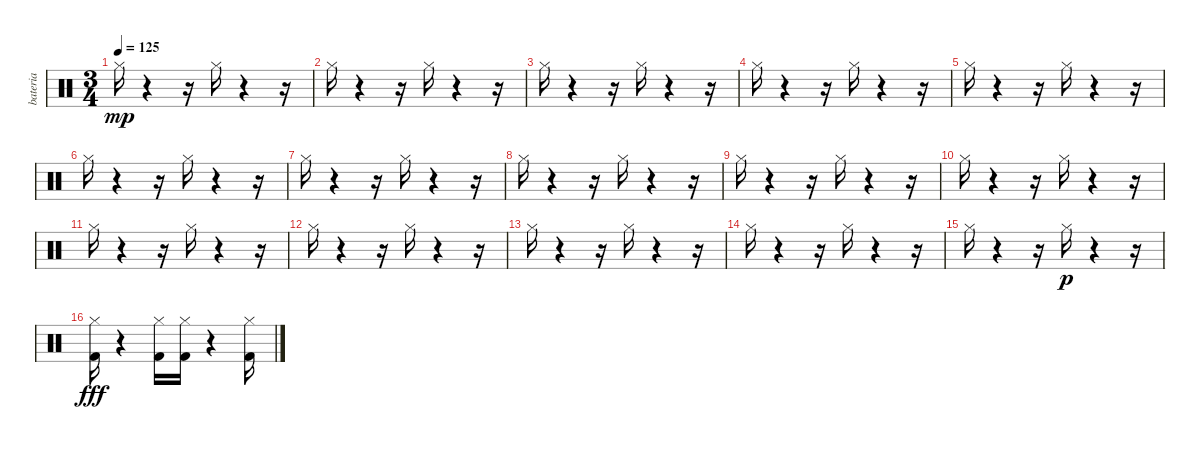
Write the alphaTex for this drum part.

\track ("bateria" "bateria") {instrument percussion}
\staff {score}
\articulation defaults
\ts (3 4)
\tempo 125
\clef neutral
\ks c "Hi-Hat (closed)".16{dy mp volume 15 balance 8}
r.4 r.16 "Hi-Hat (closed)".16{volume 15 balance 8} r.4 r.16 |
"Hi-Hat (closed)".16{volume 15 balance 8} r.4 r.16 "Hi-Hat (closed)".16 r.4 r.16 |
"Hi-Hat (closed)".16{volume 15 balance 8} r.4 r.16 "Hi-Hat (closed)".16 r.4 r.16 |
"Hi-Hat (closed)".16{volume 15 balance 8} r.4 r.16 "Hi-Hat (closed)".16{volume 15 balance 8} r.4 r.16 |
"Hi-Hat (closed)".16{volume 15 balance 8} r.4 r.16 "Hi-Hat (closed)".16 r.4 r.16 |
"Hi-Hat (closed)".16{volume 15 balance 8} r.4 r.16 "Hi-Hat (closed)".16 r.4 r.16 |
"Hi-Hat (closed)".16{volume 15 balance 8} r.4 r.16 "Hi-Hat (closed)".16{volume 15 balance 8} r.4 r.16 |
"Hi-Hat (closed)".16{volume 15 balance 8} r.4 r.16 "Hi-Hat (closed)".16 r.4 r.16 |
"Hi-Hat (closed)".16{volume 15 balance 8} r.4 r.16 "Hi-Hat (closed)".16 r.4 r.16 |
"Hi-Hat (closed)".16{volume 15 balance 8} r.4 r.16 "Hi-Hat (closed)".16{volume 15 balance 8} r.4 r.16 |
"Hi-Hat (closed)".16{volume 15 balance 8} r.4 r.16 "Hi-Hat (closed)".16 r.4 r.16 |
"Hi-Hat (closed)".16{volume 15 balance 8} r.4 r.16 "Hi-Hat (closed)".16 r.4 r.16 |
"Hi-Hat (closed)".16{volume 15 balance 8} r.4 r.16 "Hi-Hat (closed)".16{volume 15 balance 8} r.4 r.16 |
"Hi-Hat (closed)".16{volume 15 balance 8} r.4 r.16 "Hi-Hat (closed)".16 r.4 r.16 |
"Hi-Hat (closed)".16{volume 15 balance 8} r.4 r.16 "Hi-Hat (closed)".16{dy p} r.4 r.16 |
("Kick (hit) 2" "Hi-Hat (closed)").16{dy fff volume 15 balance 8} r.4 ("Hi-Hat (closed)" "Kick (hit) 2").16{volume 15 balance 8} ("Hi-Hat (closed)" "Kick (hit) 2").16 r.4 ("Hi-Hat (closed)" "Kick (hit) 2").16{volume 15}
